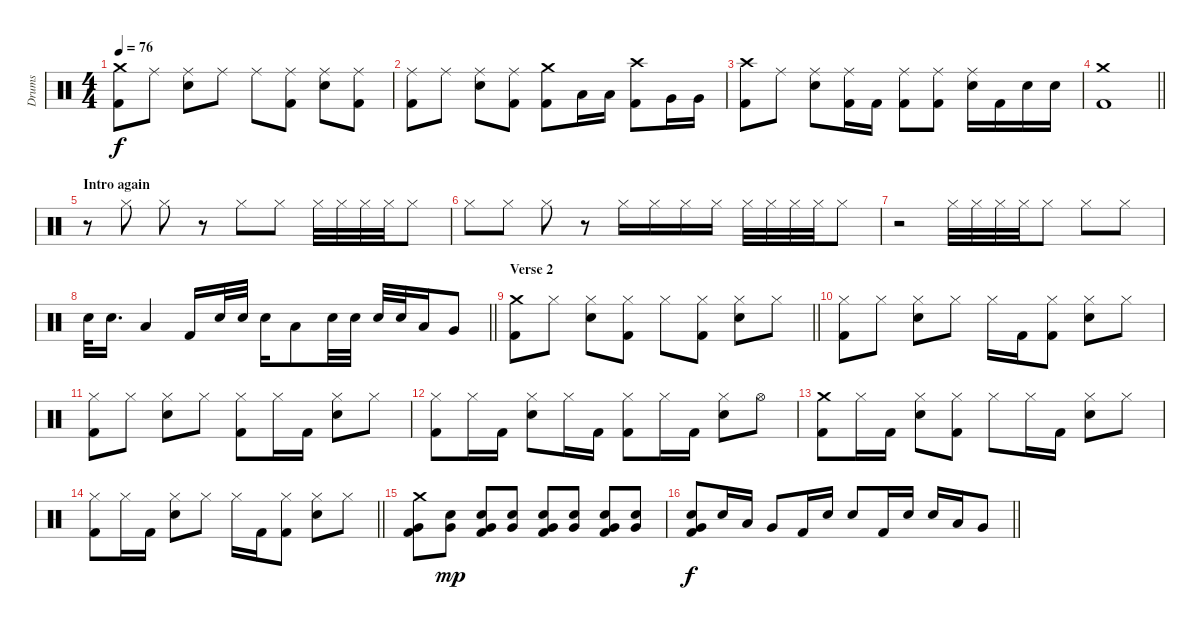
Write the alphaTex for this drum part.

\track ("Drums" "Drums") {instrument percussion}
\staff {score}
\articulation defaults
\ts (4 4)
\tempo 76
\clef neutral
\ks c
("Crash medium (hit)" "Kick (hit) 2").8{dy f} "Ride (middle)".8 ("Ride (middle)" "Snare (hit) 2").8 "Ride (middle)".8 "Ride (middle)".8 ("Ride (middle)" "Kick (hit) 2").8 ("Ride (middle)" "Snare (hit) 2").8 ("Ride (middle)" "Kick (hit) 2").8 |
("Ride (middle)" "Kick (hit) 2").8 "Ride (middle)".8 ("Ride (middle)" "Snare (hit) 2").8 ("Ride (middle)" "Kick (hit) 2").8 ("Crash medium (hit)" "Kick (hit) 2").8 "Low Tom (hit)".16 "Low Tom (hit)".16 ("Crash high (hit)" "Kick (hit) 2").8 "Very Low Tom (hit)".16 "Very Low Tom (hit)".16 |
("Crash high (hit)" "Kick (hit) 2").8 "Ride (middle)".8 ("Ride (middle)" "Snare (hit) 2").8 ("Ride (middle)" "Kick (hit) 2").16 "Kick (hit) 2".16 ("Ride (middle)" "Kick (hit) 2").8 ("Ride (middle)" "Kick (hit) 2").8 ("Ride (middle)" "Snare (hit) 2").16 "Kick (hit) 2".16 "Snare (hit) 2".16 "Snare (hit) 2".16 |
\barLineRight lightlight
("Crash medium (hit)" "Kick (hit) 2").1 |
\section ("" "Intro again")
r.8 "Hi-Hat (closed)".8 "Hi-Hat (closed)".8 r.8 "Hi-Hat (closed)".8 "Hi-Hat (closed)".8 "Hi-Hat (closed)".32 "Hi-Hat (closed)".32 "Hi-Hat (closed)".32 "Hi-Hat (closed)".32 "Hi-Hat (closed)".8 |
"Hi-Hat (closed)".8 "Hi-Hat (closed)".8 "Hi-Hat (closed)".8 r.8 "Hi-Hat (closed)".16 "Hi-Hat (closed)".16 "Hi-Hat (closed)".16 "Hi-Hat (closed)".16 "Hi-Hat (closed)".32 "Hi-Hat (closed)".32 "Hi-Hat (closed)".32 "Hi-Hat (closed)".32 "Hi-Hat (closed)".8 |
r.2 "Hi-Hat (closed)".32 "Hi-Hat (closed)".32 "Hi-Hat (closed)".32 "Hi-Hat (closed)".32 "Hi-Hat (closed)".8 "Hi-Hat (closed)".8 "Hi-Hat (closed)".8 |
\barLineRight lightlight "Snare (hit) 2".32 "Snare (hit) 2".16{d} "Low Tom (hit)".4 "Kick (hit) 2".16 "Snare (hit) 2".32 "Snare (hit) 2".32 "Snare (hit) 2".16 "Low Tom (hit)".8 "Snare (hit) 2".32 "Snare (hit) 2".32 "Snare (hit) 2".32 "Snare (hit) 2".32 "Low Tom (hit)".16 "Very Low Tom (hit)".8
|
\section ("" "Verse 2")
\barLineRight lightlight
("Crash medium (hit)" "Kick (hit) 2").8 "Hi-Hat (closed)".8 ("Hi-Hat (closed)" "Snare (hit) 2").8 ("Hi-Hat (closed)" "Kick (hit) 2").8 "Hi-Hat (closed)".8 ("Hi-Hat (closed)" "Kick (hit) 2").8 ("Hi-Hat (closed)" "Snare (hit) 2").8 "Hi-Hat (closed)".8 |
("Hi-Hat (closed)" "Kick (hit) 2").8 "Hi-Hat (closed)".8 ("Hi-Hat (closed)" "Snare (hit) 2").8 "Hi-Hat (closed)".8 "Hi-Hat (closed)".16 "Kick (hit) 2".16 ("Hi-Hat (closed)" "Kick (hit) 2").8 ("Hi-Hat (closed)" "Snare (hit) 2").8 "Hi-Hat (closed)".8 |
("Hi-Hat (closed)" "Kick (hit) 2").8 "Hi-Hat (closed)".8 ("Hi-Hat (closed)" "Snare (hit) 2").8 "Hi-Hat (closed)".8 ("Hi-Hat (closed)" "Kick (hit) 2").8 "Hi-Hat (closed)".16 "Kick (hit) 2".16 ("Hi-Hat (closed)" "Snare (hit) 2").8 "Hi-Hat (closed)".8 |
("Hi-Hat (closed)" "Kick (hit) 2").8 "Hi-Hat (closed)".16 "Kick (hit) 2".16 ("Hi-Hat (closed)" "Snare (hit) 2").8 "Hi-Hat (closed)".16 "Kick (hit) 2".16 ("Hi-Hat (closed)" "Kick (hit) 2").8 "Hi-Hat (closed)".16 "Kick (hit) 2".16 ("Hi-Hat (closed)" "Snare (hit) 2").8 "Hi-Hat (open)".8 |
("Crash medium (hit)" "Kick (hit) 2").8 "Hi-Hat (closed)".16 "Kick (hit) 2".16 ("Hi-Hat (closed)" "Snare (hit) 2").8 ("Hi-Hat (closed)" "Kick (hit) 2").8 "Hi-Hat (closed)".8 "Hi-Hat (closed)".16 "Kick (hit) 2".16 ("Hi-Hat (closed)" "Snare (hit) 2").8 "Hi-Hat (closed)".8 |
\barLineRight lightlight
("Hi-Hat (closed)" "Kick (hit) 2").8 "Hi-Hat (closed)".16 "Kick (hit) 2".16 ("Hi-Hat (closed)" "Snare (hit) 2").8 "Hi-Hat (closed)".8 "Hi-Hat (closed)".16 "Kick (hit) 2".16 ("Hi-Hat (closed)" "Kick (hit) 2").8 ("Hi-Hat (closed)" "Snare (hit) 2").8 "Hi-Hat (closed)".8 |
("Crash medium (hit)" "Very Low Tom (hit)" "Kick (hit) 2").8 ("Snare (hit) 2" "Very Low Tom (hit)").8{dy mp} ("Snare (hit) 2" "Very Low Tom (hit)" "Kick (hit) 2").8 ("Snare (hit) 2" "Very Low Tom (hit)").8 ("Snare (hit) 2" "Very Low Tom (hit)" "Kick (hit) 2").8 ("Snare (hit) 2" "Very Low Tom (hit)").8 ("Snare (hit) 2" "Very Low Tom (hit)" "Kick (hit) 2").8 ("Snare (hit) 2" "Very Low Tom (hit)").8 |
\barLineRight lightlight
("Snare (hit) 2" "Very Low Tom (hit)" "Kick (hit) 2").8{dy f} "Snare (hit) 2".16 "Low Tom (hit)".16 "Very Low Tom (hit)".8 "Kick (hit) 2".16 "Snare (hit) 2".16 "Snare (hit) 2".8 "Kick (hit) 2".16 "Snare (hit) 2".16 "Snare (hit) 2".16 "Low Tom (hit)".16 "Very Low Tom (hit)".8
